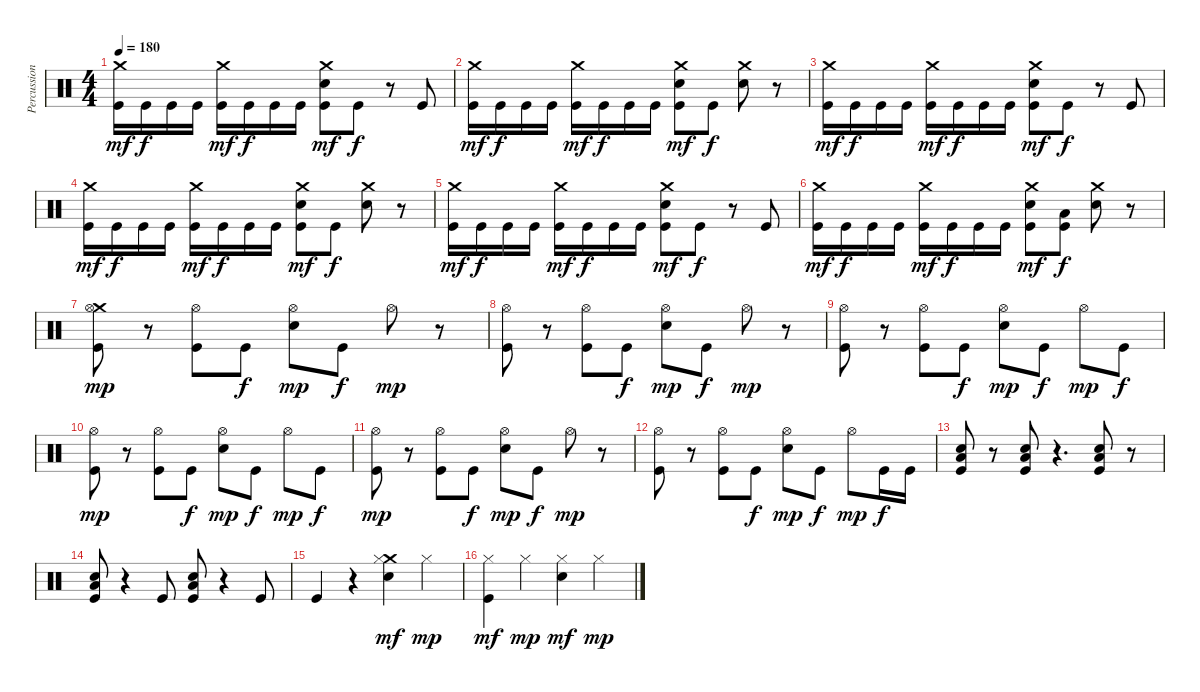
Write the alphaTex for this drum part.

\track ("Percussion" "Percussion") {instrument percussion}
\staff {score}
\articulation defaults
\ts (4 4)
\tempo 180
\clef neutral
\ks c
("Crash medium (hit)" "Kick (hit)").16{dy mf} "Kick (hit)".16{dy f} "Kick (hit)".16 "Kick (hit)".16 ("Crash medium (hit)" "Kick (hit)").16{dy mf} "Kick (hit)".16{dy f} "Kick (hit)".16 "Kick (hit)".16 ("Crash medium (hit)" "Snare (hit) 2" "Kick (hit)").8{dy mf} "Kick (hit)".8{dy f} r.8 "Kick (hit)".8 |
("Crash medium (hit)" "Kick (hit)").16{dy mf} "Kick (hit)".16{dy f} "Kick (hit)".16 "Kick (hit)".16 ("Crash medium (hit)" "Kick (hit)").16{dy mf} "Kick (hit)".16{dy f} "Kick (hit)".16 "Kick (hit)".16 ("Crash medium (hit)" "Snare (hit) 2" "Kick (hit)").8{dy mf} "Kick (hit)".8{dy f} ("Crash medium (hit)" "Snare (hit) 2").8 r.8 |
("Crash medium (hit)" "Kick (hit)").16{dy mf} "Kick (hit)".16{dy f} "Kick (hit)".16 "Kick (hit)".16 ("Crash medium (hit)" "Kick (hit)").16{dy mf} "Kick (hit)".16{dy f} "Kick (hit)".16 "Kick (hit)".16 ("Crash medium (hit)" "Snare (hit) 2" "Kick (hit)").8{dy mf} "Kick (hit)".8{dy f} r.8 "Kick (hit)".8 |
("Crash medium (hit)" "Kick (hit)").16{dy mf} "Kick (hit)".16{dy f} "Kick (hit)".16 "Kick (hit)".16 ("Crash medium (hit)" "Kick (hit)").16{dy mf} "Kick (hit)".16{dy f} "Kick (hit)".16 "Kick (hit)".16 ("Crash medium (hit)" "Snare (hit) 2" "Kick (hit)").8{dy mf} "Kick (hit)".8{dy f} ("Crash medium (hit)" "Snare (hit) 2").8 r.8 |
("Crash medium (hit)" "Kick (hit)").16{dy mf} "Kick (hit)".16{dy f} "Kick (hit)".16 "Kick (hit)".16 ("Crash medium (hit)" "Kick (hit)").16{dy mf} "Kick (hit)".16{dy f} "Kick (hit)".16 "Kick (hit)".16 ("Crash medium (hit)" "Snare (hit) 2" "Kick (hit)").8{dy mf} "Kick (hit)".8{dy f} r.8 "Kick (hit)".8 |
("Crash medium (hit)" "Kick (hit)").16{dy mf} "Kick (hit)".16{dy f} "Kick (hit)".16 "Kick (hit)".16 ("Crash medium (hit)" "Kick (hit)").16{dy mf} "Kick (hit)".16{dy f} "Kick (hit)".16 "Kick (hit)".16 ("Crash medium (hit)" "Snare (hit) 2" "Kick (hit)").8{dy mf} ("Low Floor Tom (hit)" "Kick (hit)").8{dy f} ("Crash medium (hit)" "Snare (hit) 2").8 r.8 |
("Crash medium (hit)" "Hi-Hat (open)" "Kick (hit)").8{dy mp} r.8 ("Hi-Hat (open)" "Kick (hit)").8 "Kick (hit)".8{dy f} ("Hi-Hat (open)" "Snare (hit) 2").8{dy mp} "Kick (hit)".8{dy f} "Hi-Hat (open)".8{dy mp} r.8 |
("Hi-Hat (open)" "Kick (hit)").8 r.8 ("Hi-Hat (open)" "Kick (hit)").8 "Kick (hit)".8{dy f} ("Hi-Hat (open)" "Snare (hit) 2").8{dy mp} "Kick (hit)".8{dy f} "Hi-Hat (open)".8{dy mp} r.8 |
("Hi-Hat (open)" "Kick (hit)").8 r.8 ("Hi-Hat (open)" "Kick (hit)").8 "Kick (hit)".8{dy f} ("Hi-Hat (open)" "Snare (hit) 2").8{dy mp} "Kick (hit)".8{dy f} "Hi-Hat (open)".8{dy mp} "Kick (hit)".8{dy f} |
("Hi-Hat (open)" "Kick (hit)").8{dy mp} r.8 ("Hi-Hat (open)" "Kick (hit)").8 "Kick (hit)".8{dy f} ("Hi-Hat (open)" "Snare (hit) 2").8{dy mp} "Kick (hit)".8{dy f} "Hi-Hat (open)".8{dy mp} "Kick (hit)".8{dy f} |
("Hi-Hat (open)" "Kick (hit)").8{dy mp} r.8 ("Hi-Hat (open)" "Kick (hit)").8 "Kick (hit)".8{dy f} ("Hi-Hat (open)" "Snare (hit) 2").8{dy mp} "Kick (hit)".8{dy f} "Hi-Hat (open)".8{dy mp} r.8 |
("Hi-Hat (open)" "Kick (hit)").8 r.8 ("Hi-Hat (open)" "Kick (hit)").8 "Kick (hit)".8{dy f} ("Hi-Hat (open)" "Snare (hit) 2").8{dy mp} "Kick (hit)".8{dy f} "Hi-Hat (open)".8{dy mp} "Kick (hit)".16{dy f} "Kick (hit)".16 |
("Low Floor Tom (hit)" "Snare (hit) 2" "Kick (hit)").8 r.8 ("Low Floor Tom (hit)" "Snare (hit) 2" "Kick (hit)").8 r.4{d} ("Low Floor Tom (hit)" "Snare (hit) 2" "Kick (hit)").8 r.8 |
("Low Floor Tom (hit)" "Snare (hit) 2" "Kick (hit)").8 r.4 "Kick (hit)".8 ("Low Floor Tom (hit)" "Snare (hit) 2" "Kick (hit)").8 r.4 "Kick (hit)".8 |
"Kick (hit)".4 r.4 ("Crash medium (hit)" "Hi-Hat (closed)" "Snare (hit) 2").4{dy mf} "Hi-Hat (closed)".4{dy mp} |
("Hi-Hat (closed)" "Kick (hit)").4{dy mf} "Hi-Hat (closed)".4{dy mp} ("Hi-Hat (closed)" "Snare (hit) 2").4{dy mf} "Hi-Hat (closed)".4{dy mp}
